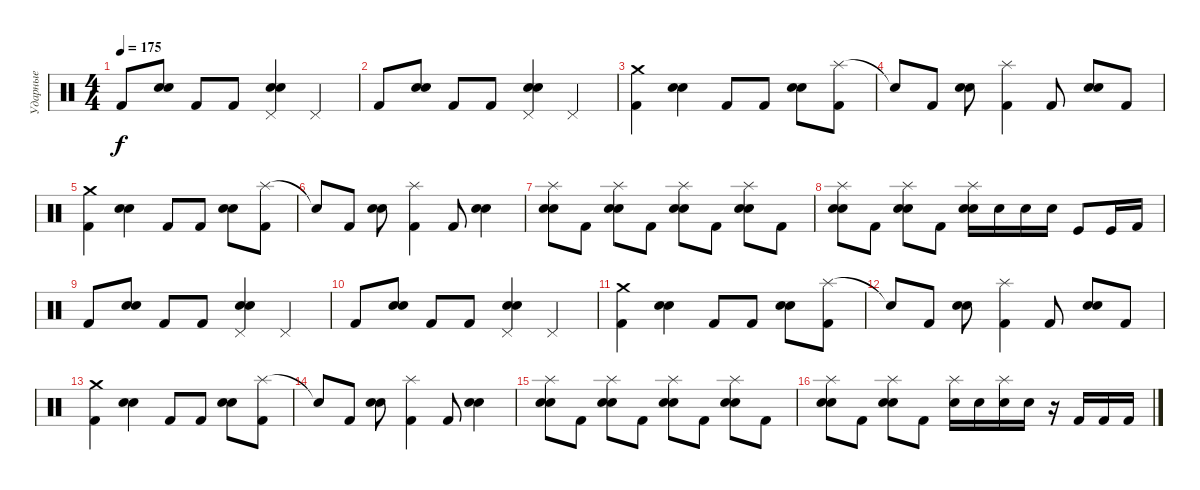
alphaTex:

\track ("Ударные" "Ударные") {instrument percussion}
\staff {score}
\articulation defaults
\ts (4 4)
\tempo 175
\clef neutral
\ks c "Kick (hit) 2".8{dy f}
("Electric Snare (hit)" "Snare (hit) 2").8 "Kick (hit) 2".8 "Kick (hit) 2".8 ("Pedal Hi-Hat (hit)" "Electric Snare (hit)" "Snare (hit) 2").4 "Pedal Hi-Hat (hit)".4 |
"Kick (hit) 2".8 ("Electric Snare (hit)" "Snare (hit) 2").8 "Kick (hit) 2".8 "Kick (hit) 2".8 ("Pedal Hi-Hat (hit)" "Electric Snare (hit)" "Snare (hit) 2").4 "Pedal Hi-Hat (hit)".4 |
("Crash medium (hit)" "Kick (hit) 2").4 ("Electric Snare (hit)" "Snare (hit) 2").4 "Kick (hit) 2".8 "Kick (hit) 2".8 ("Electric Snare (hit)" "Snare (hit) 2").8 ("Splash (hit)" "Kick (hit) 2").8 |
"Snare (hit)"{t}.8 "Kick (hit) 2".8 ("Electric Snare (hit)" "Snare (hit) 2").8 ("Splash (hit)" "Kick (hit) 2").4 "Kick (hit) 2".8 ("Electric Snare (hit)" "Snare (hit) 2").8 "Kick (hit) 2".8 |
("Crash medium (hit)" "Kick (hit) 2").4 ("Electric Snare (hit)" "Snare (hit) 2").4 "Kick (hit) 2".8 "Kick (hit) 2".8 ("Electric Snare (hit)" "Snare (hit) 2").8 ("Splash (hit)" "Kick (hit) 2").8 |
"Snare (hit)"{t}.8 "Kick (hit) 2".8 ("Electric Snare (hit)" "Snare (hit) 2").8 ("Splash (hit)" "Kick (hit) 2").4 "Kick (hit) 2".8 ("Electric Snare (hit)" "Snare (hit) 2").4 |
("Splash (hit)" "Electric Snare (hit)" "Snare (hit) 2").8 "Kick (hit) 2".8 ("Splash (hit)" "Electric Snare (hit)" "Snare (hit) 2").8 "Kick (hit) 2".8 ("Splash (hit)" "Electric Snare (hit)" "Snare (hit) 2").8 "Kick (hit) 2".8 ("Splash (hit)" "Electric Snare (hit)" "Snare (hit) 2").8 "Kick (hit) 2".8 |
("Splash (hit)" "Electric Snare (hit)" "Snare (hit) 2").8 "Kick (hit) 2".8 ("Splash (hit)" "Electric Snare (hit)" "Snare (hit) 2").8 "Kick (hit) 2".8 ("Splash (hit)" "Electric Snare (hit)" "Snare (hit) 2").16 "Electric Snare (hit)".16 "Electric Snare (hit)".16 "Electric Snare (hit)".16 "Kick (hit)".8 "Kick (hit)".16 "Kick (hit) 2".16 |
"Kick (hit) 2".8 ("Electric Snare (hit)" "Snare (hit) 2").8 "Kick (hit) 2".8 "Kick (hit) 2".8 ("Pedal Hi-Hat (hit)" "Electric Snare (hit)" "Snare (hit) 2").4 "Pedal Hi-Hat (hit)".4 |
"Kick (hit) 2".8 ("Electric Snare (hit)" "Snare (hit) 2").8 "Kick (hit) 2".8 "Kick (hit) 2".8 ("Pedal Hi-Hat (hit)" "Electric Snare (hit)" "Snare (hit) 2").4 "Pedal Hi-Hat (hit)".4 |
("Crash medium (hit)" "Kick (hit) 2").4 ("Electric Snare (hit)" "Snare (hit) 2").4 "Kick (hit) 2".8 "Kick (hit) 2".8 ("Electric Snare (hit)" "Snare (hit) 2").8 ("Splash (hit)" "Kick (hit) 2").8 |
"Snare (hit)"{t}.8 "Kick (hit) 2".8 ("Electric Snare (hit)" "Snare (hit) 2").8 ("Splash (hit)" "Kick (hit) 2").4 "Kick (hit) 2".8 ("Electric Snare (hit)" "Snare (hit) 2").8 "Kick (hit) 2".8 |
("Crash medium (hit)" "Kick (hit) 2").4 ("Electric Snare (hit)" "Snare (hit) 2").4 "Kick (hit) 2".8 "Kick (hit) 2".8 ("Electric Snare (hit)" "Snare (hit) 2").8 ("Splash (hit)" "Kick (hit) 2").8 |
"Snare (hit)"{t}.8 "Kick (hit) 2".8 ("Electric Snare (hit)" "Snare (hit) 2").8 ("Splash (hit)" "Kick (hit) 2").4 "Kick (hit) 2".8 ("Electric Snare (hit)" "Snare (hit) 2").4 |
("Splash (hit)" "Electric Snare (hit)" "Snare (hit) 2").8 "Kick (hit) 2".8 ("Splash (hit)" "Electric Snare (hit)" "Snare (hit) 2").8 "Kick (hit) 2".8 ("Splash (hit)" "Electric Snare (hit)" "Snare (hit) 2").8 "Kick (hit) 2".8 ("Splash (hit)" "Electric Snare (hit)" "Snare (hit) 2").8 "Kick (hit) 2".8 |
("Splash (hit)" "Electric Snare (hit)" "Snare (hit) 2").8 "Kick (hit) 2".8 ("Splash (hit)" "Electric Snare (hit)" "Snare (hit) 2").8 "Kick (hit) 2".8 ("Splash (hit)" "Electric Snare (hit)").16 "Electric Snare (hit)".16 ("Splash (hit)" "Electric Snare (hit)").16 "Electric Snare (hit)".16 r.16 "Kick (hit) 2".16 "Kick (hit) 2".16 "Kick (hit) 2".16
